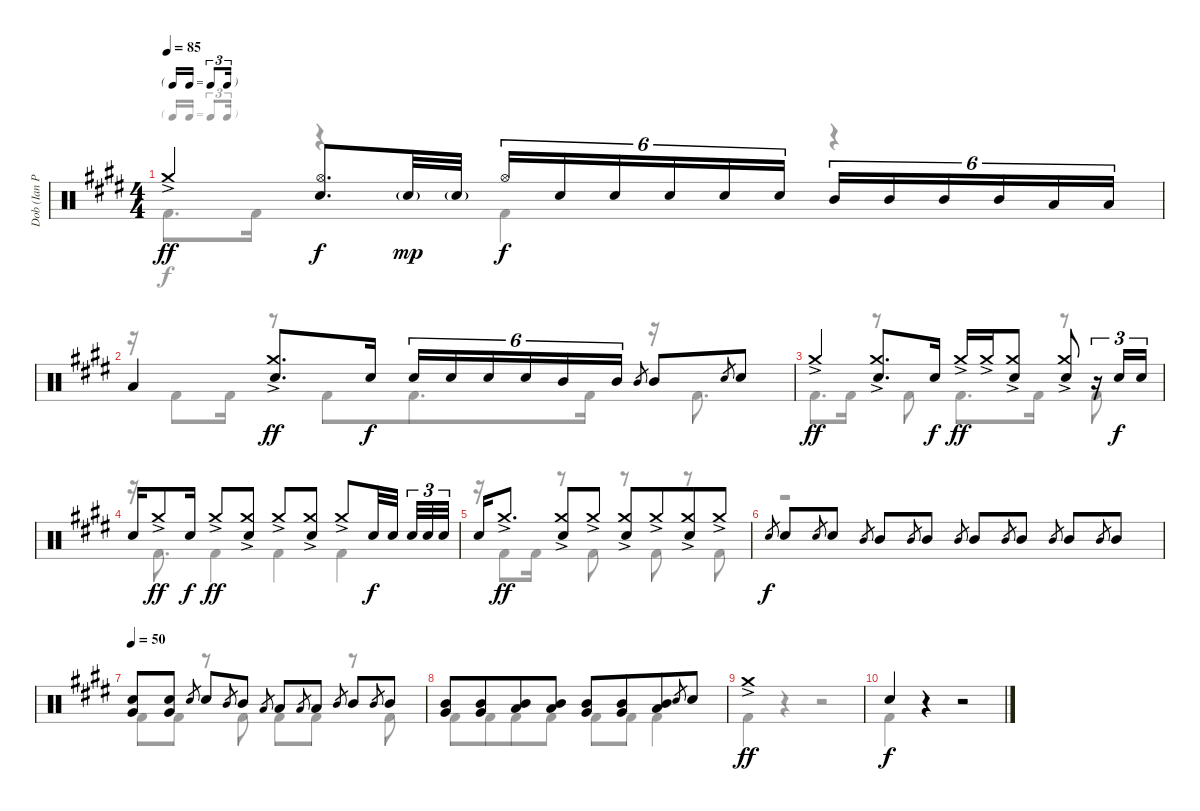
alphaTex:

\track ("Dob (Ian Paice)" "Dob (Ian P") {instrument percussion}
\staff {score}
\articulation defaults
\voice
\ts (4 4)
\tf triplet16th
\tempo 85
\clef neutral
\ks e "Crash medium (hit)"{ac}.4{dy ff}
("Hi-Hat (open)" "Electric Snare (hit)").8{d dy f} "Electric Snare (hit)"{g}.32{dy mp} "Electric Snare (hit)"{g}.32 "Hi-Hat (open)".16{tu (6 4) dy f} "Electric Snare (hit)".16{tu (6 4)} "Electric Snare (hit)".16{tu (6 4)} "Electric Snare (hit)".16{tu (6 4)} "Electric Snare (hit)".16{tu (6 4)} "Electric Snare (hit)".16{tu (6 4)} "Mid Tom (hit)".16{tu (6 4)} "Mid Tom (hit)".16{tu (6 4)} "Mid Tom (hit)".16{tu (6 4)} "Mid Tom (hit)".16{tu (6 4)} "Low Tom (hit)".16{tu (6 4)} "Low Tom (hit)".16{tu (6 4)} |
"Low Tom (hit)".4 ("Crash medium (hit)"{ac} "Electric Snare (hit)").8{d dy ff} "Electric Snare (hit)".16{dy f} "Electric Snare (hit)".16{tu (6 4)} "Electric Snare (hit)".16{tu (6 4)} "Electric Snare (hit)".16{tu (6 4)} "Electric Snare (hit)".16{tu (6 4)} "Mid Tom (hit)".16{tu (6 4)} "Mid Tom (hit)".16{tu (6 4)} "Mid Tom (hit)".8{gr} "Mid Tom (hit)".8 "Electric Snare (hit)".8{gr} "Electric Snare (hit)".8 |
"Crash medium (hit)"{ac}.4{dy ff} ("Crash medium (hit)"{ac} "Electric Snare (hit)").8{d} "Electric Snare (hit)".16{dy f} "Crash medium (hit)"{ac}.16{dy ff} "Crash medium (hit)"{ac}.16 ("Crash medium (hit)"{ac} "Electric Snare (hit)").8 ("Crash medium (hit)"{ac} "Electric Snare (hit)").8 r.16{tu (3 2)} "Electric Snare (hit)".16{tu (3 2) dy f} "Electric Snare (hit)".16{tu (3 2)} |
"Electric Snare (hit)".16 "Crash medium (hit)"{ac}.8{dy ff} "Electric Snare (hit)".16{dy f} "Crash medium (hit)"{ac}.8{dy ff} ("Crash medium (hit)"{ac} "Electric Snare (hit)").8 "Crash medium (hit)"{ac}.8 ("Crash medium (hit)"{ac} "Electric Snare (hit)").8 "Crash medium (hit)"{ac}.8 "Electric Snare (hit)".32{dy f} "Electric Snare (hit)".32{beam splitsecondary} "Electric Snare (hit)".32{tu (3 2)} "Electric Snare (hit)".32{tu (3 2)} "Electric Snare (hit)".32{tu (3 2)} |
"Electric Snare (hit)".16 "Crash medium (hit)"{ac}.8{d dy ff} ("Crash medium (hit)"{ac} "Electric Snare (hit)").8 "Crash medium (hit)"{ac}.8 ("Crash medium (hit)"{ac} "Electric Snare (hit)").8 "Crash medium (hit)"{ac}.8{beam merge} ("Crash medium (hit)"{ac} "Electric Snare (hit)").8 "Crash medium (hit)"{ac}.8 |
"Electric Snare (hit)".8{gr dy f} "Electric Snare (hit)".8 "Electric Snare (hit)".8{gr beam merge} "Electric Snare (hit)".8 "Mid Tom (hit)".8{gr beam merge} "Mid Tom (hit)".8 "Mid Tom (hit)".8{gr} "Mid Tom (hit)".8 "Mid Tom (hit)".8{gr beam split} "Mid Tom (hit)".8 "Mid Tom (hit)".8{gr} "Mid Tom (hit)".8 "Mid Tom (hit)".8{gr beam merge} "Mid Tom (hit)".8 "Mid Tom (hit)".8{gr} "Mid Tom (hit)".8 |
\tempo 50
("Electric Snare (hit)" "Very Low Tom (hit)").8 ("Electric Snare (hit)" "Very Low Tom (hit)").8 "Electric Snare (hit)".8{gr beam merge} "Electric Snare (hit)".8 "Mid Tom (hit)".8{gr} "Mid Tom (hit)".8 "Low Tom (hit)".8{gr} "Low Tom (hit)".8 "Low Tom (hit)".8{gr} "Low Tom (hit)".8 "Mid Tom (hit)".8{gr beam merge} "Mid Tom (hit)".8 "Mid Tom (hit)".8{gr} "Mid Tom (hit)".8 |
("Mid Tom (hit)" "Very Low Tom (hit)").8 ("Mid Tom (hit)" "Very Low Tom (hit)").8{beam merge} ("Mid Tom (hit)" "Low Tom (hit)").8 ("Mid Tom (hit)" "Low Tom (hit)").8 ("Mid Tom (hit)" "Very Low Tom (hit)").8 ("Mid Tom (hit)" "Very Low Tom (hit)").8{beam merge} ("Mid Tom (hit)" "Low Tom (hit)").8 "Electric Snare (hit)".8{gr} "Electric Snare (hit)".8 |
"Crash medium (hit)"{ac}.1{dy ff} |
"Electric Snare (hit)".4{dy f} r.4 r.2 |
\voice
\clef neutral
\ottava regular
\simile none
\ks e "Kick (hit) 2".8{d dy f} "Kick (hit) 2".16
r.4 "Kick (hit) 2".4 r.4 |
r.16 "Kick (hit) 2".8 "Kick (hit) 2".16 r.8 "Kick (hit) 2".8{beam merge} "Kick (hit) 2".8{d} "Kick (hit) 2".16 r.16 "Kick (hit) 2".8{d} |
"Kick (hit) 2".8{d} "Kick (hit) 2".16 r.8 "Kick (hit) 2".8 "Kick (hit) 2".8{d} "Kick (hit) 2".16 r.8 "Kick (hit) 2".8 |
r.16 "Kick (hit) 2".8{d} "Kick (hit) 2".4 "Kick (hit) 2".4 "Kick (hit) 2".4 |
r.16 "Kick (hit) 2".8 "Kick (hit) 2".16 r.8 "Kick (hit) 2".8 r.8 "Kick (hit) 2".8 r.8 "Kick (hit) 2".8 |
r.1 |
"Kick (hit) 2".8 "Kick (hit) 2".8 r.8 "Kick (hit) 2".8 "Kick (hit) 2".8 "Kick (hit) 2".8 r.8 "Kick (hit) 2".8 |
"Kick (hit) 2".8 "Kick (hit) 2".8{beam merge} "Kick (hit) 2".8 "Kick (hit) 2".8 "Kick (hit) 2".8 "Kick (hit) 2".8 "Kick (hit) 2".4 |
"Kick (hit) 2".4 r.4 r.2 |
"Kick (hit) 2".4 r.4 r.2 |
